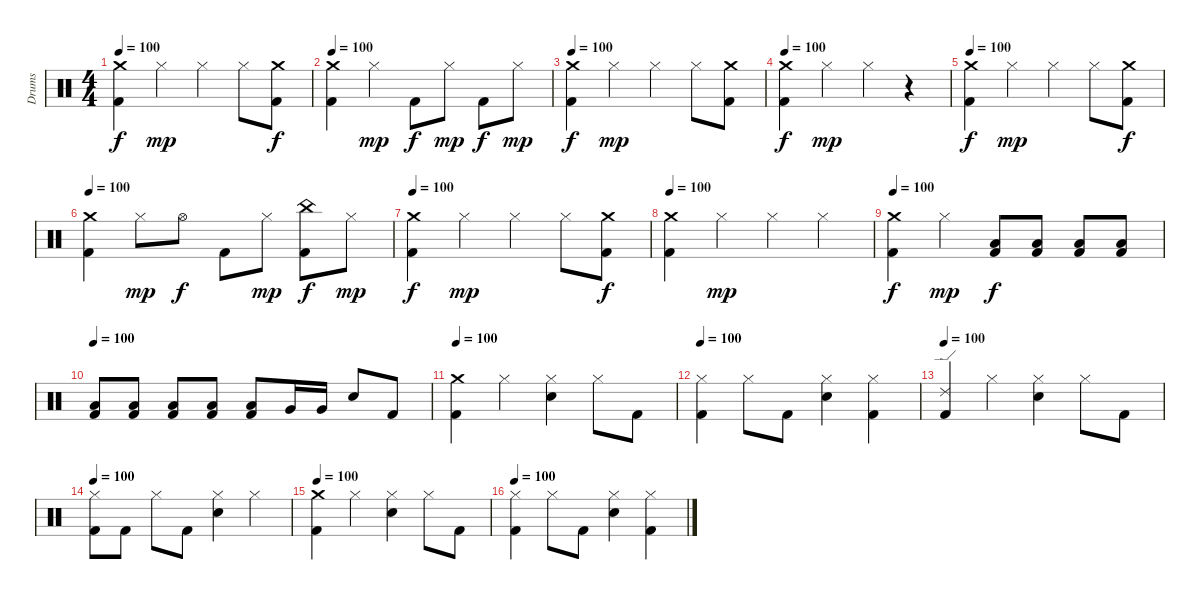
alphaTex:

\track ("Drums" "Drums") {instrument percussion}
\staff {score}
\articulation defaults
\ts (4 4)
\tempo 100
\clef neutral
\ks c
("Crash medium (hit)" "Kick (hit) 2").4{dy f} "Hi-Hat (closed)".4{dy mp} "Hi-Hat (closed)".4 "Hi-Hat (closed)".8 ("Crash medium (hit)" "Kick (hit) 2").8{dy f} |
\tempo 100
("Crash medium (hit)" "Kick (hit) 2").4 "Hi-Hat (closed)".4{dy mp} "Kick (hit) 2".8{dy f} "Hi-Hat (closed)".8{dy mp} "Kick (hit) 2".8{dy f} "Hi-Hat (closed)".8{dy mp} |
\tempo 100
("Crash medium (hit)" "Kick (hit) 2").4{dy f} "Hi-Hat (closed)".4{dy mp} "Hi-Hat (closed)".4 "Hi-Hat (closed)".8 ("Crash medium (hit)" "Kick (hit) 2").8 |
\tempo 100
("Crash medium (hit)" "Kick (hit) 2").4{dy f} "Hi-Hat (closed)".4{dy mp} "Hi-Hat (closed)".4 r.4 |
\tempo 100
("Crash medium (hit)" "Kick (hit) 2").4{dy f} "Hi-Hat (closed)".4{dy mp} "Hi-Hat (closed)".4 "Hi-Hat (closed)".8 ("Crash medium (hit)" "Kick (hit) 2").8{dy f} |
\tempo 100
("Crash medium (hit)" "Kick (hit) 2").4 "Hi-Hat (closed)".8{dy mp} "Hi-Hat (open)".8{dy f} "Kick (hit) 2".8 "Hi-Hat (closed)".8{dy mp} ("China (hit)" "Kick (hit) 2").8{dy f} "Hi-Hat (closed)".8{dy mp} |
\tempo 100
("Crash medium (hit)" "Kick (hit) 2").4{dy f} "Hi-Hat (closed)".4{dy mp} "Hi-Hat (closed)".4 "Hi-Hat (closed)".8 ("Crash medium (hit)" "Kick (hit) 2").8{dy f} |
\tempo 100
("Crash medium (hit)" "Kick (hit) 2").4 "Hi-Hat (closed)".4{dy mp} "Hi-Hat (closed)".4 "Hi-Hat (closed)".4 |
\tempo 100
("Crash medium (hit)" "Kick (hit) 2").4{dy f} "Hi-Hat (closed)".4{dy mp} ("Low Tom (hit)" "Kick (hit) 2").8{dy f volume 5} ("Kick (hit) 2" "Low Tom (hit)").8{volume 6} ("Kick (hit) 2" "Low Tom (hit)").8{volume 7} ("Kick (hit) 2" "Low Tom (hit)").8{volume 8} |
\tempo 100
("Kick (hit) 2" "Low Tom (hit)").8{volume 9} ("Kick (hit) 2" "Low Tom (hit)").8{volume 10} ("Kick (hit) 2" "Low Tom (hit)").8{volume 11} ("Kick (hit) 2" "Low Tom (hit)").8{volume 12} ("Kick (hit) 2" "Low Tom (hit)").8{volume 12} "Very Low Tom (hit)".16 "Very Low Tom (hit)".16 "Snare (hit) 2".8 "Kick (hit) 2".8 |
\tempo 100
("Kick (hit) 2" "Crash medium (hit)").4 "Hi-Hat (closed)".4 ("Snare (hit) 2" "Hi-Hat (closed)").4 "Hi-Hat (closed)".8 "Kick (hit) 2".8 |
\tempo 100
("Hi-Hat (closed)" "Kick (hit) 2").4 "Hi-Hat (closed)".8 "Kick (hit) 2".8 ("Snare (hit) 2" "Hi-Hat (closed)").4 ("Kick (hit) 2" "Hi-Hat (closed)").4 |
\tempo 100
("Kick (hit) 2" "Ride (edge) 2").4 "Hi-Hat (closed)".4 ("Hi-Hat (closed)" "Snare (hit) 2").4 "Hi-Hat (closed)".8 "Kick (hit) 2".8 |
\tempo 100
("Hi-Hat (closed)" "Kick (hit) 2").8 "Kick (hit) 2".8 "Hi-Hat (closed)".8 "Kick (hit) 2".8 ("Snare (hit) 2" "Hi-Hat (closed)").4 "Hi-Hat (closed)".4 |
\tempo 100
("Kick (hit) 2" "Crash medium (hit)").4 "Hi-Hat (closed)".4 ("Snare (hit) 2" "Hi-Hat (closed)").4 "Hi-Hat (closed)".8 "Kick (hit) 2".8 |
\tempo 100
("Hi-Hat (closed)" "Kick (hit) 2").4 "Hi-Hat (closed)".8 "Kick (hit) 2".8 ("Snare (hit) 2" "Hi-Hat (closed)").4 ("Kick (hit) 2" "Hi-Hat (closed)").4
